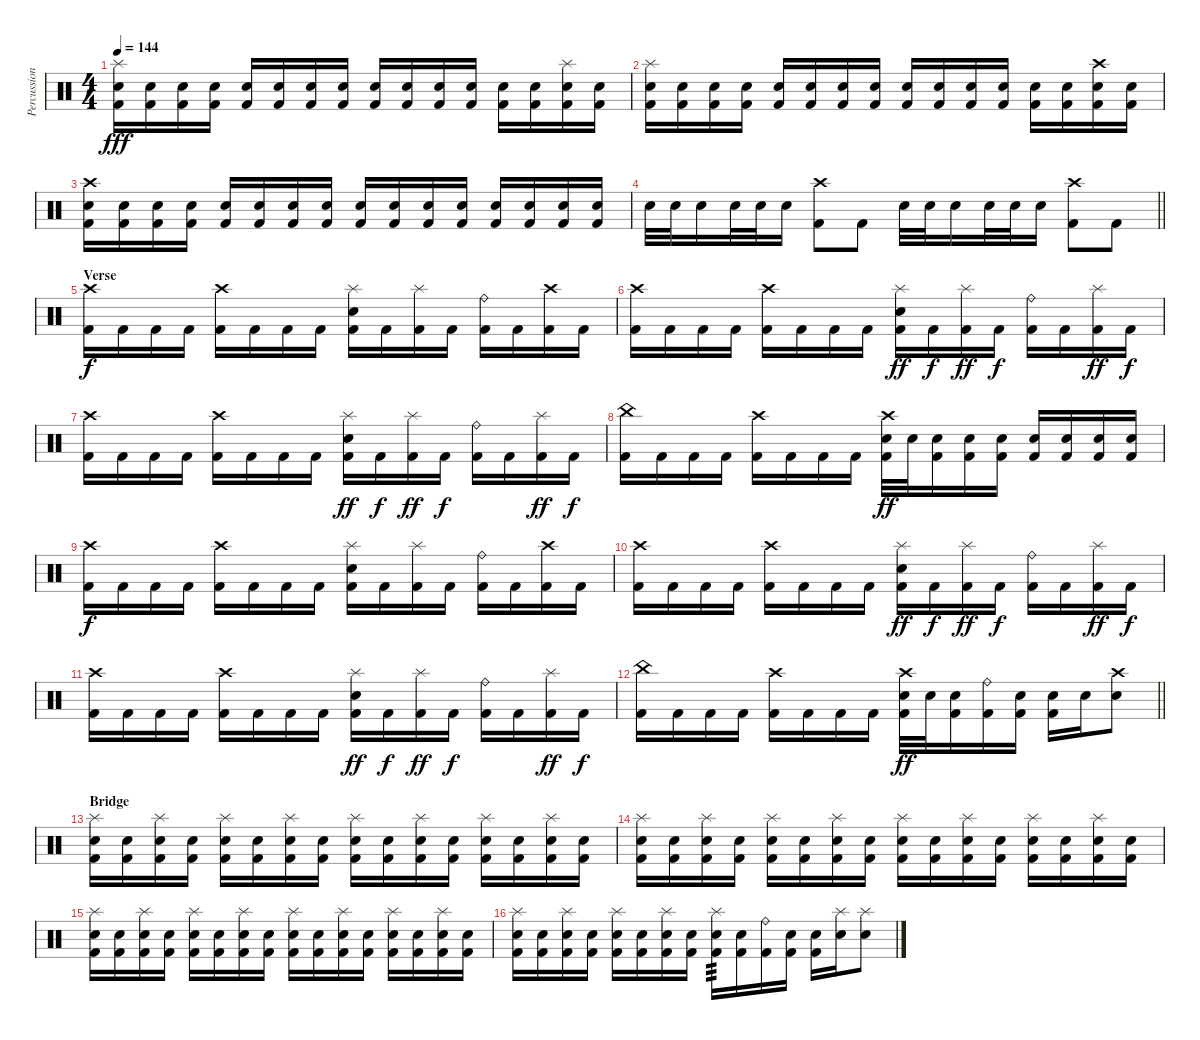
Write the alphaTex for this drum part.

\track ("Percussion" "Percussion") {instrument percussion}
\staff {score}
\articulation defaults
\ts (4 4)
\tempo 144
\clef neutral
\ks c
("Splash (hit)" "Electric Snare (hit)" "Kick (hit) 2").16{dy fff} ("Electric Snare (hit)" "Kick (hit) 2").16 ("Electric Snare (hit)" "Kick (hit) 2").16 ("Electric Snare (hit)" "Kick (hit) 2").16 ("Electric Snare (hit)" "Kick (hit) 2").16 ("Electric Snare (hit)" "Kick (hit) 2").16 ("Electric Snare (hit)" "Kick (hit) 2").16 ("Electric Snare (hit)" "Kick (hit) 2").16 ("Electric Snare (hit)" "Kick (hit) 2").16 ("Electric Snare (hit)" "Kick (hit) 2").16 ("Electric Snare (hit)" "Kick (hit) 2").16 ("Electric Snare (hit)" "Kick (hit) 2").16 ("Electric Snare (hit)" "Kick (hit) 2").16 ("Electric Snare (hit)" "Kick (hit) 2").16 ("Splash (hit)" "Electric Snare (hit)" "Kick (hit) 2").16 ("Electric Snare (hit)" "Kick (hit) 2").16 |
("Splash (hit)" "Electric Snare (hit)" "Kick (hit) 2").16 ("Electric Snare (hit)" "Kick (hit) 2").16 ("Electric Snare (hit)" "Kick (hit) 2").16 ("Electric Snare (hit)" "Kick (hit) 2").16 ("Electric Snare (hit)" "Kick (hit) 2").16 ("Electric Snare (hit)" "Kick (hit) 2").16 ("Electric Snare (hit)" "Kick (hit) 2").16 ("Electric Snare (hit)" "Kick (hit) 2").16 ("Electric Snare (hit)" "Kick (hit) 2").16 ("Electric Snare (hit)" "Kick (hit) 2").16 ("Electric Snare (hit)" "Kick (hit) 2").16 ("Electric Snare (hit)" "Kick (hit) 2").16 ("Electric Snare (hit)" "Kick (hit) 2").16 ("Electric Snare (hit)" "Kick (hit) 2").16 ("Crash high (hit)" "Electric Snare (hit)" "Kick (hit) 2").16 ("Electric Snare (hit)" "Kick (hit) 2").16 |
("Crash high (hit)" "Electric Snare (hit)" "Kick (hit) 2").16 ("Electric Snare (hit)" "Kick (hit) 2").16 ("Electric Snare (hit)" "Kick (hit) 2").16 ("Electric Snare (hit)" "Kick (hit) 2").16 ("Electric Snare (hit)" "Kick (hit) 2").16 ("Electric Snare (hit)" "Kick (hit) 2").16 ("Electric Snare (hit)" "Kick (hit) 2").16 ("Electric Snare (hit)" "Kick (hit) 2").16 ("Electric Snare (hit)" "Kick (hit) 2").16 ("Electric Snare (hit)" "Kick (hit) 2").16 ("Electric Snare (hit)" "Kick (hit) 2").16 ("Electric Snare (hit)" "Kick (hit) 2").16 ("Electric Snare (hit)" "Kick (hit) 2").16 ("Electric Snare (hit)" "Kick (hit) 2").16 ("Electric Snare (hit)" "Kick (hit) 2").16 ("Electric Snare (hit)" "Kick (hit) 2").16 |
\barLineRight lightlight "Electric Snare (hit)".32 "Electric Snare (hit)".32 "Electric Snare (hit)".16 "Electric Snare (hit)".32 "Electric Snare (hit)".32 "Electric Snare (hit)".16
("Crash high (hit)" "Kick (hit) 2").8 "Kick (hit) 2".8 "Electric Snare (hit)".32 "Electric Snare (hit)".32 "Electric Snare (hit)".16 "Electric Snare (hit)".32 "Electric Snare (hit)".32 "Electric Snare (hit)".16 ("Crash high (hit)" "Kick (hit) 2").8 "Kick (hit) 2".8 |
\section ("" "Verse")
("Crash high (hit)" "Kick (hit) 2").16{dy f} "Kick (hit) 2".16 "Kick (hit) 2".16 "Kick (hit) 2".16 ("Crash high (hit)" "Kick (hit) 2").16 "Kick (hit) 2".16 "Kick (hit) 2".16 "Kick (hit) 2".16 ("Splash (hit)" "Electric Snare (hit)" "Kick (hit) 2").16 "Kick (hit) 2".16 ("Splash (hit)" "Kick (hit) 2").16 "Kick (hit) 2".16 ("Ride (bell)" "Kick (hit) 2").16 "Kick (hit) 2".16 ("Crash high (hit)" "Kick (hit) 2").16 "Kick (hit) 2".16 |
("Crash high (hit)" "Kick (hit) 2").16 "Kick (hit) 2".16 "Kick (hit) 2".16 "Kick (hit) 2".16 ("Crash high (hit)" "Kick (hit) 2").16 "Kick (hit) 2".16 "Kick (hit) 2".16 "Kick (hit) 2".16 ("Splash (hit)" "Electric Snare (hit)" "Kick (hit) 2").16{dy ff} "Kick (hit) 2".16{dy f} ("Splash (hit)" "Kick (hit) 2").16{dy ff} "Kick (hit) 2".16{dy f} ("Ride (bell)" "Kick (hit) 2").16 "Kick (hit) 2".16 ("Splash (hit)" "Kick (hit) 2").16{dy ff} "Kick (hit) 2".16{dy f} |
("Crash high (hit)" "Kick (hit) 2").16 "Kick (hit) 2".16 "Kick (hit) 2".16 "Kick (hit) 2".16 ("Crash high (hit)" "Kick (hit) 2").16 "Kick (hit) 2".16 "Kick (hit) 2".16 "Kick (hit) 2".16 ("Splash (hit)" "Electric Snare (hit)" "Kick (hit) 2").16{dy ff} "Kick (hit) 2".16{dy f} ("Splash (hit)" "Kick (hit) 2").16{dy ff} "Kick (hit) 2".16{dy f} ("Ride (bell)" "Kick (hit) 2").16 "Kick (hit) 2".16 ("Splash (hit)" "Kick (hit) 2").16{dy ff} "Kick (hit) 2".16{dy f} |
("China (hit)" "Kick (hit) 2").16 "Kick (hit) 2".16 "Kick (hit) 2".16 "Kick (hit) 2".16 ("Crash high (hit)" "Kick (hit) 2").16 "Kick (hit) 2".16 "Kick (hit) 2".16 "Kick (hit) 2".16 ("Crash high (hit)" "Electric Snare (hit)" "Kick (hit) 2").32{dy ff} "Electric Snare (hit)".32 ("Electric Snare (hit)" "Kick (hit) 2").16 ("Electric Snare (hit)" "Kick (hit) 2").16 ("Electric Snare (hit)" "Kick (hit) 2").16 ("Electric Snare (hit)" "Kick (hit) 2").16 ("Electric Snare (hit)" "Kick (hit) 2").16 ("Electric Snare (hit)" "Kick (hit) 2").16 ("Electric Snare (hit)" "Kick (hit) 2").16 |
("Crash high (hit)" "Kick (hit) 2").16{dy f} "Kick (hit) 2".16 "Kick (hit) 2".16 "Kick (hit) 2".16 ("Crash high (hit)" "Kick (hit) 2").16 "Kick (hit) 2".16 "Kick (hit) 2".16 "Kick (hit) 2".16 ("Splash (hit)" "Electric Snare (hit)" "Kick (hit) 2").16 "Kick (hit) 2".16 ("Splash (hit)" "Kick (hit) 2").16 "Kick (hit) 2".16 ("Ride (bell)" "Kick (hit) 2").16 "Kick (hit) 2".16 ("Crash high (hit)" "Kick (hit) 2").16 "Kick (hit) 2".16 |
("Crash high (hit)" "Kick (hit) 2").16 "Kick (hit) 2".16 "Kick (hit) 2".16 "Kick (hit) 2".16 ("Crash high (hit)" "Kick (hit) 2").16 "Kick (hit) 2".16 "Kick (hit) 2".16 "Kick (hit) 2".16 ("Splash (hit)" "Electric Snare (hit)" "Kick (hit) 2").16{dy ff} "Kick (hit) 2".16{dy f} ("Splash (hit)" "Kick (hit) 2").16{dy ff} "Kick (hit) 2".16{dy f} ("Ride (bell)" "Kick (hit) 2").16 "Kick (hit) 2".16 ("Splash (hit)" "Kick (hit) 2").16{dy ff} "Kick (hit) 2".16{dy f} |
("Crash high (hit)" "Kick (hit) 2").16 "Kick (hit) 2".16 "Kick (hit) 2".16 "Kick (hit) 2".16 ("Crash high (hit)" "Kick (hit) 2").16 "Kick (hit) 2".16 "Kick (hit) 2".16 "Kick (hit) 2".16 ("Splash (hit)" "Electric Snare (hit)" "Kick (hit) 2").16{dy ff} "Kick (hit) 2".16{dy f} ("Splash (hit)" "Kick (hit) 2").16{dy ff} "Kick (hit) 2".16{dy f} ("Ride (bell)" "Kick (hit) 2").16 "Kick (hit) 2".16 ("Splash (hit)" "Kick (hit) 2").16{dy ff} "Kick (hit) 2".16{dy f} |
\barLineRight lightlight
("China (hit)" "Kick (hit) 2").16 "Kick (hit) 2".16 "Kick (hit) 2".16 "Kick (hit) 2".16 ("Crash high (hit)" "Kick (hit) 2").16 "Kick (hit) 2".16 "Kick (hit) 2".16 "Kick (hit) 2".16 ("Crash high (hit)" "Electric Snare (hit)" "Kick (hit) 2").32{dy ff} "Electric Snare (hit)".32 ("Electric Snare (hit)" "Kick (hit) 2").16 ("Ride (bell)" "Kick (hit) 2").16 ("Electric Snare (hit)" "Kick (hit) 2").16 ("Electric Snare (hit)" "Kick (hit) 2").16 "Electric Snare (hit)".16 ("Crash high (hit)" "Electric Snare (hit)").8 |
\section ("" "Bridge")
("Splash (hit)" "Electric Snare (hit)" "Kick (hit) 2").16 ("Electric Snare (hit)" "Kick (hit) 2").16 ("Splash (hit)" "Electric Snare (hit)" "Kick (hit) 2").16 ("Electric Snare (hit)" "Kick (hit) 2").16 ("Splash (hit)" "Electric Snare (hit)" "Kick (hit) 2").16 ("Electric Snare (hit)" "Kick (hit) 2").16 ("Splash (hit)" "Electric Snare (hit)" "Kick (hit) 2").16 ("Electric Snare (hit)" "Kick (hit) 2").16 ("Splash (hit)" "Electric Snare (hit)" "Kick (hit) 2").16 ("Electric Snare (hit)" "Kick (hit) 2").16 ("Splash (hit)" "Electric Snare (hit)" "Kick (hit) 2").16 ("Electric Snare (hit)" "Kick (hit) 2").16 ("Splash (hit)" "Electric Snare (hit)" "Kick (hit) 2").16 ("Electric Snare (hit)" "Kick (hit) 2").16 ("Splash (hit)" "Electric Snare (hit)" "Kick (hit) 2").16 ("Electric Snare (hit)" "Kick (hit) 2").16 |
("Splash (hit)" "Electric Snare (hit)" "Kick (hit) 2").16 ("Electric Snare (hit)" "Kick (hit) 2").16 ("Splash (hit)" "Electric Snare (hit)" "Kick (hit) 2").16 ("Electric Snare (hit)" "Kick (hit) 2").16 ("Splash (hit)" "Electric Snare (hit)" "Kick (hit) 2").16 ("Electric Snare (hit)" "Kick (hit) 2").16 ("Splash (hit)" "Electric Snare (hit)" "Kick (hit) 2").16 ("Electric Snare (hit)" "Kick (hit) 2").16 ("Splash (hit)" "Electric Snare (hit)" "Kick (hit) 2").16 ("Electric Snare (hit)" "Kick (hit) 2").16 ("Splash (hit)" "Electric Snare (hit)" "Kick (hit) 2").16 ("Electric Snare (hit)" "Kick (hit) 2").16 ("Splash (hit)" "Electric Snare (hit)" "Kick (hit) 2").16 ("Electric Snare (hit)" "Kick (hit) 2").16 ("Splash (hit)" "Electric Snare (hit)" "Kick (hit) 2").16 ("Electric Snare (hit)" "Kick (hit) 2").16 |
("Splash (hit)" "Electric Snare (hit)" "Kick (hit) 2").16 ("Electric Snare (hit)" "Kick (hit) 2").16 ("Splash (hit)" "Electric Snare (hit)" "Kick (hit) 2").16 ("Electric Snare (hit)" "Kick (hit) 2").16 ("Splash (hit)" "Electric Snare (hit)" "Kick (hit) 2").16 ("Electric Snare (hit)" "Kick (hit) 2").16 ("Splash (hit)" "Electric Snare (hit)" "Kick (hit) 2").16 ("Electric Snare (hit)" "Kick (hit) 2").16 ("Splash (hit)" "Electric Snare (hit)" "Kick (hit) 2").16 ("Electric Snare (hit)" "Kick (hit) 2").16 ("Splash (hit)" "Electric Snare (hit)" "Kick (hit) 2").16 ("Electric Snare (hit)" "Kick (hit) 2").16 ("Splash (hit)" "Electric Snare (hit)" "Kick (hit) 2").16 ("Electric Snare (hit)" "Kick (hit) 2").16 ("Splash (hit)" "Electric Snare (hit)" "Kick (hit) 2").16 ("Electric Snare (hit)" "Kick (hit) 2").16 |
("Splash (hit)" "Electric Snare (hit)" "Kick (hit) 2").16 ("Electric Snare (hit)" "Kick (hit) 2").16 ("Splash (hit)" "Electric Snare (hit)" "Kick (hit) 2").16 ("Electric Snare (hit)" "Kick (hit) 2").16 ("Splash (hit)" "Electric Snare (hit)" "Kick (hit) 2").16 ("Electric Snare (hit)" "Kick (hit) 2").16 ("Splash (hit)" "Electric Snare (hit)" "Kick (hit) 2").16 ("Electric Snare (hit)" "Kick (hit) 2").16 ("Splash (hit)" "Electric Snare (hit)" "Kick (hit) 2").16{tp 3} ("Electric Snare (hit)" "Kick (hit) 2").16 ("Ride (bell)" "Kick (hit) 2").16 ("Electric Snare (hit)" "Kick (hit) 2").16 ("Electric Snare (hit)" "Kick (hit) 2").16 ("Splash (hit)" "Electric Snare (hit)").16 ("Splash (hit)" "Electric Snare (hit)").8
